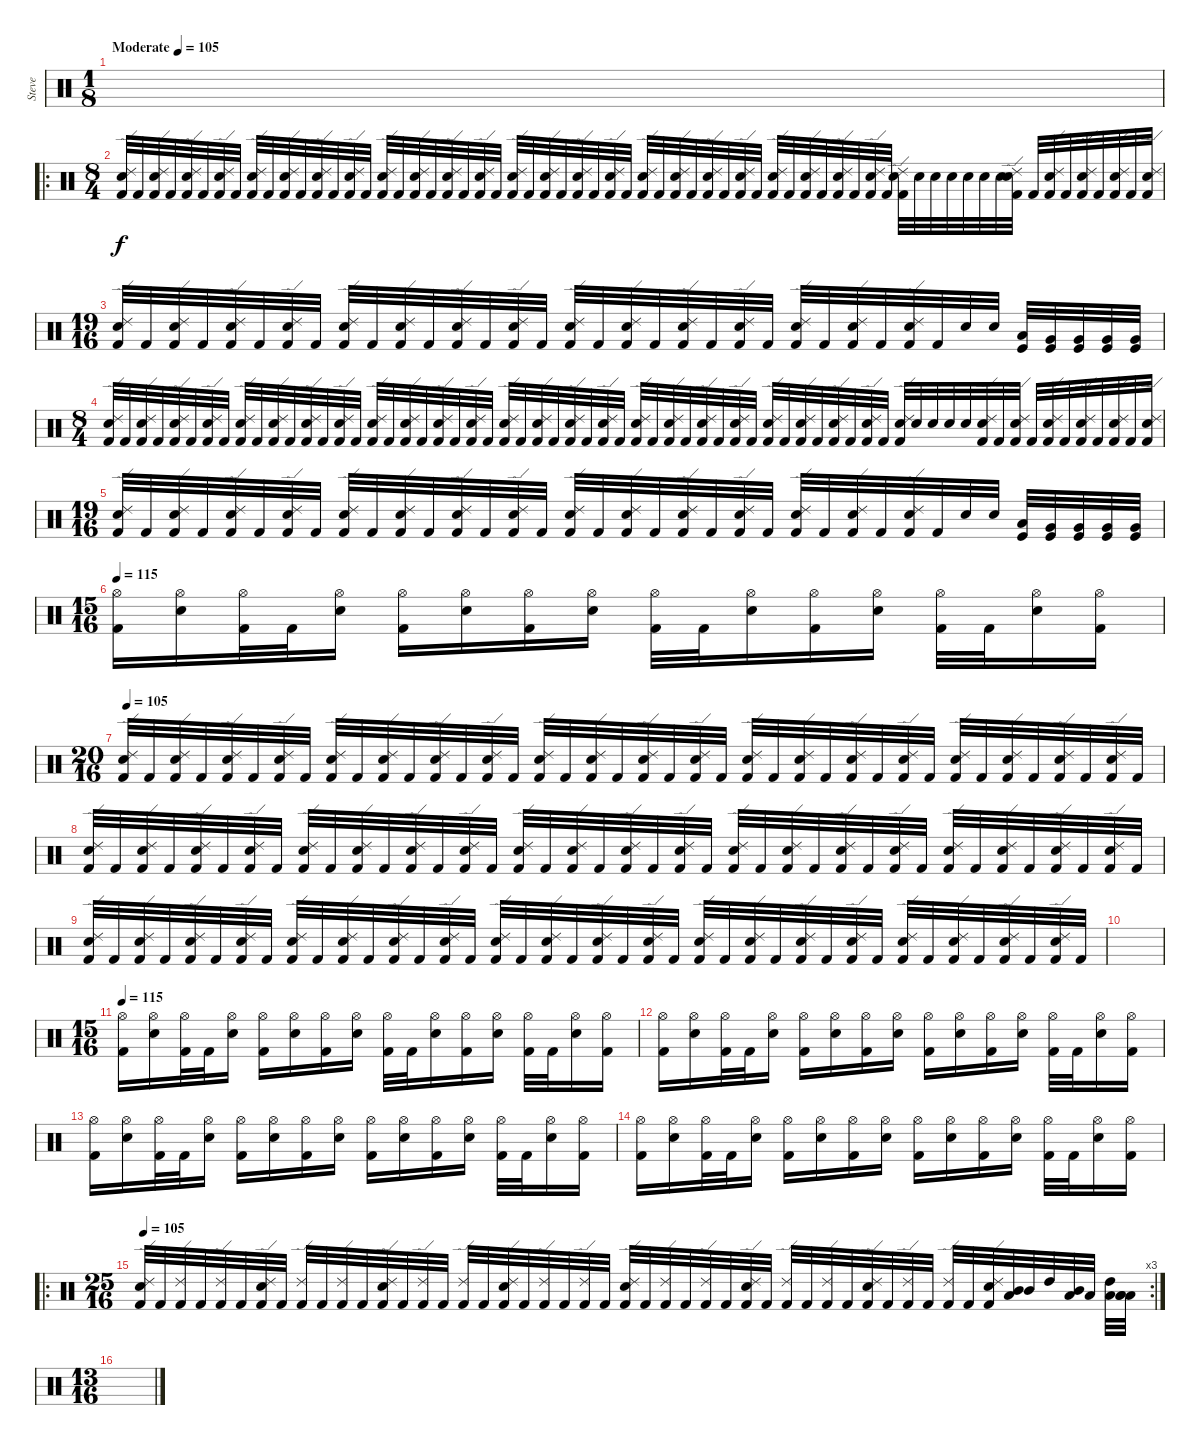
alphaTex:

\track ("Steve" "Steve") {instrument percussion}
\staff {score}
\articulation defaults
\ts (1 8)
\tempo (105 "Moderate")
\clef neutral
\ks c
|
\ro
\ts (8 4)
("Electric Snare (hit)" "Kick (hit) 2" "Ride (edge) 2").32 "Kick (hit) 2".32 ("Electric Snare (hit)" "Kick (hit) 2" "Ride (edge) 2").32 "Kick (hit) 2".32 ("Electric Snare (hit)" "Kick (hit) 2" "Ride (edge) 2").32 "Kick (hit) 2".32 ("Electric Snare (hit)" "Kick (hit) 2" "Ride (edge) 2").32 "Kick (hit) 2".32 ("Electric Snare (hit)" "Kick (hit) 2" "Ride (edge) 2").32 "Kick (hit) 2".32 ("Electric Snare (hit)" "Kick (hit) 2" "Ride (edge) 2").32 "Kick (hit) 2".32 ("Electric Snare (hit)" "Kick (hit) 2" "Ride (edge) 2").32 "Kick (hit) 2".32 ("Electric Snare (hit)" "Kick (hit) 2" "Ride (edge) 2").32 "Kick (hit) 2".32 ("Electric Snare (hit)" "Kick (hit) 2" "Ride (edge) 2").32 "Kick (hit) 2".32 ("Electric Snare (hit)" "Kick (hit) 2" "Ride (edge) 2").32 "Kick (hit) 2".32 ("Electric Snare (hit)" "Kick (hit) 2" "Ride (edge) 2").32 "Kick (hit) 2".32 ("Electric Snare (hit)" "Kick (hit) 2" "Ride (edge) 2").32 "Kick (hit) 2".32 ("Electric Snare (hit)" "Kick (hit) 2" "Ride (edge) 2").32 "Kick (hit) 2".32 ("Electric Snare (hit)" "Kick (hit) 2" "Ride (edge) 2").32 "Kick (hit) 2".32 ("Electric Snare (hit)" "Kick (hit) 2" "Ride (edge) 2").32 "Kick (hit) 2".32 ("Electric Snare (hit)" "Kick (hit) 2" "Ride (edge) 2").32 "Kick (hit) 2".32 ("Electric Snare (hit)" "Kick (hit) 2" "Ride (edge) 2").32 "Kick (hit) 2".32 ("Electric Snare (hit)" "Kick (hit) 2" "Ride (edge) 2").32 "Kick (hit) 2".32 ("Electric Snare (hit)" "Kick (hit) 2" "Ride (edge) 2").32 "Kick (hit) 2".32 ("Electric Snare (hit)" "Kick (hit) 2" "Ride (edge) 2").32 "Kick (hit) 2".32 ("Electric Snare (hit)" "Kick (hit) 2" "Ride (edge) 2").32 "Kick (hit) 2".32 ("Electric Snare (hit)" "Kick (hit) 2" "Ride (edge) 2").32 "Kick (hit) 2".32 ("Electric Snare (hit)" "Kick (hit) 2" "Ride (edge) 2").32 "Kick (hit) 2".32 ("Electric Snare (hit)" "Kick (hit) 2" "Ride (edge) 2").32 "Kick (hit) 2".32 ("Electric Snare (hit)" "Kick (hit) 2" "Ride (edge) 2").32 "Electric Snare (hit)".32 "Electric Snare (hit)".32 "Electric Snare (hit)".32 "Electric Snare (hit)".32 "Electric Snare (hit)".32 "Electric Snare (hit)".32 ("Electric Snare (hit)" "Kick (hit) 2" "Ride (edge) 2").32 "Kick (hit) 2".32 ("Electric Snare (hit)" "Kick (hit) 2" "Ride (edge) 2").32 "Kick (hit) 2".32 ("Electric Snare (hit)" "Kick (hit) 2" "Ride (edge) 2").32 "Kick (hit) 2".32 ("Electric Snare (hit)" "Kick (hit) 2" "Ride (edge) 2").32 "Kick (hit) 2".32 ("Electric Snare (hit)" "Kick (hit) 2" "Ride (edge) 2").32 |
\ts (19 16)
("Electric Snare (hit)" "Kick (hit) 2" "Ride (edge) 2").32 "Kick (hit) 2".32 ("Electric Snare (hit)" "Kick (hit) 2" "Ride (edge) 2").32 "Kick (hit) 2".32 ("Electric Snare (hit)" "Kick (hit) 2" "Ride (edge) 2").32 "Kick (hit) 2".32 ("Electric Snare (hit)" "Kick (hit) 2" "Ride (edge) 2").32 "Kick (hit) 2".32 ("Electric Snare (hit)" "Kick (hit) 2" "Ride (edge) 2").32 "Kick (hit) 2".32 ("Electric Snare (hit)" "Kick (hit) 2" "Ride (edge) 2").32 "Kick (hit) 2".32 ("Electric Snare (hit)" "Kick (hit) 2" "Ride (edge) 2").32 "Kick (hit) 2".32 ("Electric Snare (hit)" "Kick (hit) 2" "Ride (edge) 2").32 "Kick (hit) 2".32 ("Electric Snare (hit)" "Kick (hit) 2" "Ride (edge) 2").32 "Kick (hit) 2".32 ("Electric Snare (hit)" "Kick (hit) 2" "Ride (edge) 2").32 "Kick (hit) 2".32 ("Electric Snare (hit)" "Kick (hit) 2" "Ride (edge) 2").32 "Kick (hit) 2".32 ("Electric Snare (hit)" "Kick (hit) 2" "Ride (edge) 2").32 "Kick (hit) 2".32 ("Electric Snare (hit)" "Kick (hit) 2" "Ride (edge) 2").32 "Kick (hit) 2".32 ("Electric Snare (hit)" "Kick (hit) 2" "Ride (edge) 2").32 "Kick (hit) 2".32 ("Electric Snare (hit)" "Kick (hit) 2" "Ride (edge) 2").32 "Kick (hit) 2".32 "Electric Snare (hit)".32 "Electric Snare (hit)".32 ("Low Tom (hit)" "Kick (hit)").32 ("Very Low Tom (hit)" "Kick (hit)").32 ("Very Low Tom (hit)" "Kick (hit)").32 ("Very Low Tom (hit)" "Kick (hit)").32 ("Very Low Tom (hit)" "Kick (hit)").32 |
\ts (8 4)
("Electric Snare (hit)" "Kick (hit) 2" "Ride (edge) 2").32 "Kick (hit) 2".32 ("Electric Snare (hit)" "Kick (hit) 2" "Ride (edge) 2").32 "Kick (hit) 2".32 ("Electric Snare (hit)" "Kick (hit) 2" "Ride (edge) 2").32 "Kick (hit) 2".32 ("Electric Snare (hit)" "Kick (hit) 2" "Ride (edge) 2").32 "Kick (hit) 2".32 ("Electric Snare (hit)" "Kick (hit) 2" "Ride (edge) 2").32 "Kick (hit) 2".32 ("Electric Snare (hit)" "Kick (hit) 2" "Ride (edge) 2").32 "Kick (hit) 2".32 ("Electric Snare (hit)" "Kick (hit) 2" "Ride (edge) 2").32 "Kick (hit) 2".32 ("Electric Snare (hit)" "Kick (hit) 2" "Ride (edge) 2").32 "Kick (hit) 2".32 ("Electric Snare (hit)" "Kick (hit) 2" "Ride (edge) 2").32 "Kick (hit) 2".32 ("Electric Snare (hit)" "Kick (hit) 2" "Ride (edge) 2").32 "Kick (hit) 2".32 ("Electric Snare (hit)" "Kick (hit) 2" "Ride (edge) 2").32 "Kick (hit) 2".32 ("Electric Snare (hit)" "Kick (hit) 2" "Ride (edge) 2").32 "Kick (hit) 2".32 ("Electric Snare (hit)" "Kick (hit) 2" "Ride (edge) 2").32 "Kick (hit) 2".32 ("Electric Snare (hit)" "Kick (hit) 2" "Ride (edge) 2").32 "Kick (hit) 2".32 ("Electric Snare (hit)" "Kick (hit) 2" "Ride (edge) 2").32 "Kick (hit) 2".32 ("Electric Snare (hit)" "Kick (hit) 2" "Ride (edge) 2").32 "Kick (hit) 2".32 ("Electric Snare (hit)" "Kick (hit) 2" "Ride (edge) 2").32 "Kick (hit) 2".32 ("Electric Snare (hit)" "Kick (hit) 2" "Ride (edge) 2").32 "Kick (hit) 2".32 ("Electric Snare (hit)" "Kick (hit) 2" "Ride (edge) 2").32 "Kick (hit) 2".32 ("Electric Snare (hit)" "Kick (hit) 2" "Ride (edge) 2").32 "Kick (hit) 2".32 ("Electric Snare (hit)" "Kick (hit) 2" "Ride (edge) 2").32 "Kick (hit) 2".32 ("Electric Snare (hit)" "Kick (hit) 2" "Ride (edge) 2").32 "Kick (hit) 2".32 ("Electric Snare (hit)" "Kick (hit) 2" "Ride (edge) 2").32 "Kick (hit) 2".32 ("Electric Snare (hit)" "Kick (hit) 2" "Ride (edge) 2").32 "Kick (hit) 2".32 ("Electric Snare (hit)" "Kick (hit) 2" "Ride (edge) 2").32 "Electric Snare (hit)".32 "Electric Snare (hit)".32 "Electric Snare (hit)".32 "Electric Snare (hit)".32 ("Electric Snare (hit)" "Kick (hit) 2" "Ride (edge) 2").32 "Kick (hit) 2".32 ("Electric Snare (hit)" "Kick (hit) 2" "Ride (edge) 2").32 "Kick (hit) 2".32 ("Electric Snare (hit)" "Kick (hit) 2" "Ride (edge) 2").32 "Kick (hit) 2".32 ("Electric Snare (hit)" "Kick (hit) 2" "Ride (edge) 2").32 "Kick (hit) 2".32 ("Electric Snare (hit)" "Kick (hit) 2" "Ride (edge) 2").32 "Kick (hit) 2".32 ("Electric Snare (hit)" "Kick (hit) 2" "Ride (edge) 2").32 |
\ts (19 16)
("Electric Snare (hit)" "Kick (hit) 2" "Ride (edge) 2").32 "Kick (hit) 2".32 ("Electric Snare (hit)" "Kick (hit) 2" "Ride (edge) 2").32 "Kick (hit) 2".32 ("Electric Snare (hit)" "Kick (hit) 2" "Ride (edge) 2").32 "Kick (hit) 2".32 ("Electric Snare (hit)" "Kick (hit) 2" "Ride (edge) 2").32 "Kick (hit) 2".32 ("Electric Snare (hit)" "Kick (hit) 2" "Ride (edge) 2").32 "Kick (hit) 2".32 ("Electric Snare (hit)" "Kick (hit) 2" "Ride (edge) 2").32 "Kick (hit) 2".32 ("Electric Snare (hit)" "Kick (hit) 2" "Ride (edge) 2").32 "Kick (hit) 2".32 ("Electric Snare (hit)" "Kick (hit) 2" "Ride (edge) 2").32 "Kick (hit) 2".32 ("Electric Snare (hit)" "Kick (hit) 2" "Ride (edge) 2").32 "Kick (hit) 2".32 ("Electric Snare (hit)" "Kick (hit) 2" "Ride (edge) 2").32 "Kick (hit) 2".32 ("Electric Snare (hit)" "Kick (hit) 2" "Ride (edge) 2").32 "Kick (hit) 2".32 ("Electric Snare (hit)" "Kick (hit) 2" "Ride (edge) 2").32 "Kick (hit) 2".32 ("Electric Snare (hit)" "Kick (hit) 2" "Ride (edge) 2").32 "Kick (hit) 2".32 ("Electric Snare (hit)" "Kick (hit) 2" "Ride (edge) 2").32 "Kick (hit) 2".32 ("Electric Snare (hit)" "Kick (hit) 2" "Ride (edge) 2").32 "Kick (hit) 2".32 "Electric Snare (hit)".32 "Electric Snare (hit)".32 ("Low Tom (hit)" "Kick (hit)").32 ("Very Low Tom (hit)" "Kick (hit)").32 ("Very Low Tom (hit)" "Kick (hit)").32 ("Very Low Tom (hit)" "Kick (hit)").32 ("Very Low Tom (hit)" "Kick (hit)").32 |
\ts (15 16)
\tempo 115
("Kick (hit) 2" "Hi-Hat (open)").16 ("Electric Snare (hit)" "Hi-Hat (open)").16 ("Kick (hit) 2" "Hi-Hat (open)").32 "Kick (hit) 2".32 ("Electric Snare (hit)" "Hi-Hat (open)").16 ("Kick (hit) 2" "Hi-Hat (open)").16 ("Electric Snare (hit)" "Hi-Hat (open)").16 ("Kick (hit) 2" "Hi-Hat (open)").16 ("Electric Snare (hit)" "Hi-Hat (open)").16 ("Kick (hit) 2" "Hi-Hat (open)").32 "Kick (hit) 2".32 ("Electric Snare (hit)" "Hi-Hat (open)").16 ("Kick (hit) 2" "Hi-Hat (open)").16 ("Electric Snare (hit)" "Hi-Hat (open)").16 ("Kick (hit) 2" "Hi-Hat (open)").32 "Kick (hit) 2".32 ("Electric Snare (hit)" "Hi-Hat (open)").16 ("Kick (hit) 2" "Hi-Hat (open)").16 |
\ts (20 16)
\tempo 100
\tempo 105
("Kick (hit) 2" "Ride (edge) 2" "Electric Snare (hit)").32 "Kick (hit) 2".32 ("Kick (hit) 2" "Ride (edge) 2" "Electric Snare (hit)").32 "Kick (hit) 2".32 ("Kick (hit) 2" "Ride (edge) 2" "Electric Snare (hit)").32 "Kick (hit) 2".32 ("Kick (hit) 2" "Ride (edge) 2" "Electric Snare (hit)").32 "Kick (hit) 2".32 ("Kick (hit) 2" "Ride (edge) 2" "Electric Snare (hit)").32 "Kick (hit) 2".32 ("Kick (hit) 2" "Ride (edge) 2" "Electric Snare (hit)").32 "Kick (hit) 2".32 ("Kick (hit) 2" "Ride (edge) 2" "Electric Snare (hit)").32 "Kick (hit) 2".32 ("Kick (hit) 2" "Ride (edge) 2" "Electric Snare (hit)").32 "Kick (hit) 2".32 ("Kick (hit) 2" "Ride (edge) 2" "Electric Snare (hit)").32 "Kick (hit) 2".32 ("Kick (hit) 2" "Ride (edge) 2" "Electric Snare (hit)").32 "Kick (hit) 2".32 ("Kick (hit) 2" "Ride (edge) 2" "Electric Snare (hit)").32 "Kick (hit) 2".32 ("Kick (hit) 2" "Ride (edge) 2" "Electric Snare (hit)").32 "Kick (hit) 2".32 ("Kick (hit) 2" "Ride (edge) 2" "Electric Snare (hit)").32 "Kick (hit) 2".32 ("Kick (hit) 2" "Ride (edge) 2" "Electric Snare (hit)").32 "Kick (hit) 2".32 ("Kick (hit) 2" "Ride (edge) 2" "Electric Snare (hit)").32 "Kick (hit) 2".32 ("Kick (hit) 2" "Ride (edge) 2" "Electric Snare (hit)").32 "Kick (hit) 2".32 ("Kick (hit) 2" "Ride (edge) 2" "Electric Snare (hit)").32 "Kick (hit) 2".32 ("Kick (hit) 2" "Ride (edge) 2" "Electric Snare (hit)").32 "Kick (hit) 2".32 ("Kick (hit) 2" "Ride (edge) 2" "Electric Snare (hit)").32 "Kick (hit) 2".32 ("Kick (hit) 2" "Ride (edge) 2" "Electric Snare (hit)").32 "Kick (hit) 2".32 |
("Kick (hit) 2" "Ride (edge) 2" "Electric Snare (hit)").32 "Kick (hit) 2".32 ("Kick (hit) 2" "Ride (edge) 2" "Electric Snare (hit)").32 "Kick (hit) 2".32 ("Kick (hit) 2" "Ride (edge) 2" "Electric Snare (hit)").32 "Kick (hit) 2".32 ("Kick (hit) 2" "Ride (edge) 2" "Electric Snare (hit)").32 "Kick (hit) 2".32 ("Kick (hit) 2" "Ride (edge) 2" "Electric Snare (hit)").32 "Kick (hit) 2".32 ("Kick (hit) 2" "Ride (edge) 2" "Electric Snare (hit)").32 "Kick (hit) 2".32 ("Kick (hit) 2" "Ride (edge) 2" "Electric Snare (hit)").32 "Kick (hit) 2".32 ("Kick (hit) 2" "Ride (edge) 2" "Electric Snare (hit)").32 "Kick (hit) 2".32 ("Kick (hit) 2" "Ride (edge) 2" "Electric Snare (hit)").32 "Kick (hit) 2".32 ("Kick (hit) 2" "Ride (edge) 2" "Electric Snare (hit)").32 "Kick (hit) 2".32 ("Kick (hit) 2" "Ride (edge) 2" "Electric Snare (hit)").32 "Kick (hit) 2".32 ("Kick (hit) 2" "Ride (edge) 2" "Electric Snare (hit)").32 "Kick (hit) 2".32 ("Kick (hit) 2" "Ride (edge) 2" "Electric Snare (hit)").32 "Kick (hit) 2".32 ("Kick (hit) 2" "Ride (edge) 2" "Electric Snare (hit)").32 "Kick (hit) 2".32 ("Kick (hit) 2" "Ride (edge) 2" "Electric Snare (hit)").32 "Kick (hit) 2".32 ("Kick (hit) 2" "Ride (edge) 2" "Electric Snare (hit)").32 "Kick (hit) 2".32 ("Kick (hit) 2" "Ride (edge) 2" "Electric Snare (hit)").32 "Kick (hit) 2".32 ("Kick (hit) 2" "Ride (edge) 2" "Electric Snare (hit)").32 "Kick (hit) 2".32 ("Kick (hit) 2" "Ride (edge) 2" "Electric Snare (hit)").32 "Kick (hit) 2".32 ("Kick (hit) 2" "Ride (edge) 2" "Electric Snare (hit)").32 "Kick (hit) 2".32 |
("Kick (hit) 2" "Ride (edge) 2" "Electric Snare (hit)").32 "Kick (hit) 2".32 ("Kick (hit) 2" "Ride (edge) 2" "Electric Snare (hit)").32 "Kick (hit) 2".32 ("Kick (hit) 2" "Ride (edge) 2" "Electric Snare (hit)").32 "Kick (hit) 2".32 ("Kick (hit) 2" "Ride (edge) 2" "Electric Snare (hit)").32 "Kick (hit) 2".32 ("Kick (hit) 2" "Ride (edge) 2" "Electric Snare (hit)").32 "Kick (hit) 2".32 ("Kick (hit) 2" "Ride (edge) 2" "Electric Snare (hit)").32 "Kick (hit) 2".32 ("Kick (hit) 2" "Ride (edge) 2" "Electric Snare (hit)").32 "Kick (hit) 2".32 ("Kick (hit) 2" "Ride (edge) 2" "Electric Snare (hit)").32 "Kick (hit) 2".32 ("Kick (hit) 2" "Ride (edge) 2" "Electric Snare (hit)").32 "Kick (hit) 2".32 ("Kick (hit) 2" "Ride (edge) 2" "Electric Snare (hit)").32 "Kick (hit) 2".32 ("Kick (hit) 2" "Ride (edge) 2" "Electric Snare (hit)").32 "Kick (hit) 2".32 ("Kick (hit) 2" "Ride (edge) 2" "Electric Snare (hit)").32 "Kick (hit) 2".32 ("Kick (hit) 2" "Ride (edge) 2" "Electric Snare (hit)").32 "Kick (hit) 2".32 ("Kick (hit) 2" "Ride (edge) 2" "Electric Snare (hit)").32 "Kick (hit) 2".32 ("Kick (hit) 2" "Ride (edge) 2" "Electric Snare (hit)").32 "Kick (hit) 2".32 ("Kick (hit) 2" "Ride (edge) 2" "Electric Snare (hit)").32 "Kick (hit) 2".32 ("Kick (hit) 2" "Ride (edge) 2" "Electric Snare (hit)").32 "Kick (hit) 2".32 ("Kick (hit) 2" "Ride (edge) 2" "Electric Snare (hit)").32 "Kick (hit) 2".32 ("Kick (hit) 2" "Ride (edge) 2" "Electric Snare (hit)").32 "Kick (hit) 2".32 ("Kick (hit) 2" "Ride (edge) 2" "Electric Snare (hit)").32 "Kick (hit) 2".32 |
|
\ts (15 16)
\tempo 115
("Kick (hit) 2" "Hi-Hat (open)").16 ("Electric Snare (hit)" "Hi-Hat (open)").16 ("Kick (hit) 2" "Hi-Hat (open)").32 "Kick (hit) 2".32 ("Electric Snare (hit)" "Hi-Hat (open)").16 ("Kick (hit) 2" "Hi-Hat (open)").16 ("Electric Snare (hit)" "Hi-Hat (open)").16 ("Kick (hit) 2" "Hi-Hat (open)").16 ("Electric Snare (hit)" "Hi-Hat (open)").16 ("Kick (hit) 2" "Hi-Hat (open)").32 "Kick (hit) 2".32 ("Electric Snare (hit)" "Hi-Hat (open)").16 ("Kick (hit) 2" "Hi-Hat (open)").16 ("Electric Snare (hit)" "Hi-Hat (open)").16 ("Kick (hit) 2" "Hi-Hat (open)").32 "Kick (hit) 2".32 ("Electric Snare (hit)" "Hi-Hat (open)").16 ("Kick (hit) 2" "Hi-Hat (open)").16 |
("Kick (hit) 2" "Hi-Hat (open)").16 ("Electric Snare (hit)" "Hi-Hat (open)").16 ("Kick (hit) 2" "Hi-Hat (open)").32 "Kick (hit) 2".32 ("Electric Snare (hit)" "Hi-Hat (open)").16 ("Kick (hit) 2" "Hi-Hat (open)").16 ("Electric Snare (hit)" "Hi-Hat (open)").16 ("Kick (hit) 2" "Hi-Hat (open)").16 ("Electric Snare (hit)" "Hi-Hat (open)").16 ("Kick (hit) 2" "Hi-Hat (open)").16 ("Electric Snare (hit)" "Hi-Hat (open)").16 ("Kick (hit) 2" "Hi-Hat (open)").16 ("Electric Snare (hit)" "Hi-Hat (open)").16 ("Kick (hit) 2" "Hi-Hat (open)").32 "Kick (hit) 2".32 ("Electric Snare (hit)" "Hi-Hat (open)").16 ("Kick (hit) 2" "Hi-Hat (open)").16 |
("Kick (hit) 2" "Hi-Hat (open)").16 ("Electric Snare (hit)" "Hi-Hat (open)").16 ("Kick (hit) 2" "Hi-Hat (open)").32 "Kick (hit) 2".32 ("Electric Snare (hit)" "Hi-Hat (open)").16 ("Kick (hit) 2" "Hi-Hat (open)").16 ("Electric Snare (hit)" "Hi-Hat (open)").16 ("Kick (hit) 2" "Hi-Hat (open)").16 ("Electric Snare (hit)" "Hi-Hat (open)").16 ("Kick (hit) 2" "Hi-Hat (open)").16 ("Electric Snare (hit)" "Hi-Hat (open)").16 ("Kick (hit) 2" "Hi-Hat (open)").16 ("Electric Snare (hit)" "Hi-Hat (open)").16 ("Kick (hit) 2" "Hi-Hat (open)").32 "Kick (hit) 2".32 ("Electric Snare (hit)" "Hi-Hat (open)").16 ("Kick (hit) 2" "Hi-Hat (open)").16 |
("Kick (hit) 2" "Hi-Hat (open)").16 ("Electric Snare (hit)" "Hi-Hat (open)").16 ("Kick (hit) 2" "Hi-Hat (open)").32 "Kick (hit) 2".32 ("Electric Snare (hit)" "Hi-Hat (open)").16 ("Kick (hit) 2" "Hi-Hat (open)").16 ("Electric Snare (hit)" "Hi-Hat (open)").16 ("Kick (hit) 2" "Hi-Hat (open)").16 ("Electric Snare (hit)" "Hi-Hat (open)").16 ("Kick (hit) 2" "Hi-Hat (open)").16 ("Electric Snare (hit)" "Hi-Hat (open)").16 ("Kick (hit) 2" "Hi-Hat (open)").16 ("Electric Snare (hit)" "Hi-Hat (open)").16 ("Kick (hit) 2" "Hi-Hat (open)").32 "Kick (hit) 2".32 ("Electric Snare (hit)" "Hi-Hat (open)").16 ("Kick (hit) 2" "Hi-Hat (open)").16 |
\ro
\rc 3
\ts (25 16)
\tempo 100
\tempo 105
("Ride (edge) 2" "Electric Snare (hit)" "Kick (hit) 2").32 "Kick (hit) 2".32 ("Ride (edge) 2" "Kick (hit) 2").32 "Kick (hit) 2".32 ("Ride (edge) 2" "Kick (hit) 2").32 "Kick (hit) 2".32 ("Ride (edge) 2" "Electric Snare (hit)" "Kick (hit) 2").32 "Kick (hit) 2".32 ("Ride (edge) 2" "Kick (hit) 2").32 "Kick (hit) 2".32 ("Ride (edge) 2" "Kick (hit) 2").32 "Kick (hit) 2".32 ("Ride (edge) 2" "Electric Snare (hit)" "Kick (hit) 2").32 "Kick (hit) 2".32 ("Ride (edge) 2" "Kick (hit) 2").32 "Kick (hit) 2".32 ("Ride (edge) 2" "Kick (hit) 2").32 "Kick (hit) 2".32 ("Ride (edge) 2" "Electric Snare (hit)" "Kick (hit) 2").32 "Kick (hit) 2".32 ("Ride (edge) 2" "Kick (hit) 2").32 "Kick (hit) 2".32 ("Ride (edge) 2" "Kick (hit) 2").32 "Kick (hit) 2".32 ("Ride (edge) 2" "Electric Snare (hit)" "Kick (hit) 2").32 "Kick (hit) 2".32 ("Ride (edge) 2" "Kick (hit) 2").32 "Kick (hit) 2".32 ("Ride (edge) 2" "Kick (hit) 2").32 "Kick (hit) 2".32 ("Ride (edge) 2" "Electric Snare (hit)" "Kick (hit) 2").32 "Kick (hit) 2".32 ("Ride (edge) 2" "Kick (hit) 2").32 "Kick (hit) 2".32 ("Ride (edge) 2" "Kick (hit) 2").32 "Kick (hit) 2".32 ("Ride (edge) 2" "Electric Snare (hit)" "Kick (hit) 2").32 "Kick (hit) 2".32 ("Ride (edge) 2" "Kick (hit) 2").32 "Kick (hit) 2".32 ("Ride (edge) 2" "Kick (hit) 2").32 "Kick (hit) 2".32 ("Ride (edge) 2" "Electric Snare (hit)" "Kick (hit) 2").32 ("Mid Tom (hit)" "Low Floor Tom (hit)").32 "Mid Tom (hit)".32 "High Tom (hit)".32 ("Mid Tom (hit)" "Low Floor Tom (hit)").32 "Low Tom (hit)".32 ("High Tom (hit)" "Low Floor Tom (hit)").32 ("Low Floor Tom (hit)" "Low Floor Tom (hit)" "Low Floor Tom (hit)").32 |
\ts (13 16)
